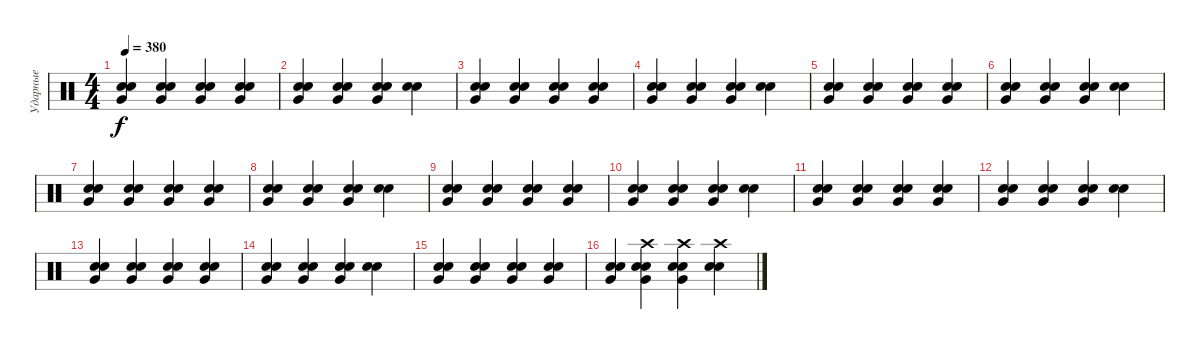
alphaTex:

\track ("Ударные" "Ударные") {instrument percussion}
\staff {score}
\articulation defaults
\ts (4 4)
\tempo 380
\clef neutral
\ks c
("Electric Snare (hit)" "Electric Snare (hit)" "Very Low Tom (hit)").4{dy f} ("Electric Snare (hit)" "Electric Snare (hit)" "Very Low Tom (hit)").4 ("Electric Snare (hit)" "Electric Snare (hit)" "Very Low Tom (hit)").4 ("Electric Snare (hit)" "Electric Snare (hit)" "Very Low Tom (hit)").4 |
("Electric Snare (hit)" "Electric Snare (hit)" "Very Low Tom (hit)").4 ("Electric Snare (hit)" "Electric Snare (hit)" "Very Low Tom (hit)").4 ("Electric Snare (hit)" "Electric Snare (hit)" "Very Low Tom (hit)").4 ("Electric Snare (hit)" "Electric Snare (hit)").4 |
("Electric Snare (hit)" "Electric Snare (hit)" "Very Low Tom (hit)").4 ("Electric Snare (hit)" "Electric Snare (hit)" "Very Low Tom (hit)").4 ("Electric Snare (hit)" "Electric Snare (hit)" "Very Low Tom (hit)").4 ("Electric Snare (hit)" "Electric Snare (hit)" "Very Low Tom (hit)").4 |
("Electric Snare (hit)" "Electric Snare (hit)" "Very Low Tom (hit)").4 ("Electric Snare (hit)" "Electric Snare (hit)" "Very Low Tom (hit)").4 ("Electric Snare (hit)" "Electric Snare (hit)" "Very Low Tom (hit)").4 ("Electric Snare (hit)" "Electric Snare (hit)").4 |
("Electric Snare (hit)" "Electric Snare (hit)" "Very Low Tom (hit)").4 ("Electric Snare (hit)" "Electric Snare (hit)" "Very Low Tom (hit)").4 ("Electric Snare (hit)" "Electric Snare (hit)" "Very Low Tom (hit)").4 ("Electric Snare (hit)" "Electric Snare (hit)" "Very Low Tom (hit)").4 |
("Electric Snare (hit)" "Electric Snare (hit)" "Very Low Tom (hit)").4 ("Electric Snare (hit)" "Electric Snare (hit)" "Very Low Tom (hit)").4 ("Electric Snare (hit)" "Electric Snare (hit)" "Very Low Tom (hit)").4 ("Electric Snare (hit)" "Electric Snare (hit)").4 |
("Electric Snare (hit)" "Electric Snare (hit)" "Very Low Tom (hit)").4 ("Electric Snare (hit)" "Electric Snare (hit)" "Very Low Tom (hit)").4 ("Electric Snare (hit)" "Electric Snare (hit)" "Very Low Tom (hit)").4 ("Electric Snare (hit)" "Electric Snare (hit)" "Very Low Tom (hit)").4 |
("Electric Snare (hit)" "Electric Snare (hit)" "Very Low Tom (hit)").4 ("Electric Snare (hit)" "Electric Snare (hit)" "Very Low Tom (hit)").4 ("Electric Snare (hit)" "Electric Snare (hit)" "Very Low Tom (hit)").4 ("Electric Snare (hit)" "Electric Snare (hit)").4 |
("Electric Snare (hit)" "Electric Snare (hit)" "Very Low Tom (hit)").4 ("Electric Snare (hit)" "Electric Snare (hit)" "Very Low Tom (hit)").4 ("Electric Snare (hit)" "Electric Snare (hit)" "Very Low Tom (hit)").4 ("Electric Snare (hit)" "Electric Snare (hit)" "Very Low Tom (hit)").4 |
("Electric Snare (hit)" "Electric Snare (hit)" "Very Low Tom (hit)").4 ("Electric Snare (hit)" "Electric Snare (hit)" "Very Low Tom (hit)").4 ("Electric Snare (hit)" "Electric Snare (hit)" "Very Low Tom (hit)").4 ("Electric Snare (hit)" "Electric Snare (hit)").4 |
("Electric Snare (hit)" "Electric Snare (hit)" "Very Low Tom (hit)").4 ("Electric Snare (hit)" "Electric Snare (hit)" "Very Low Tom (hit)").4 ("Electric Snare (hit)" "Electric Snare (hit)" "Very Low Tom (hit)").4 ("Electric Snare (hit)" "Electric Snare (hit)" "Very Low Tom (hit)").4 |
("Electric Snare (hit)" "Electric Snare (hit)" "Very Low Tom (hit)").4 ("Electric Snare (hit)" "Electric Snare (hit)" "Very Low Tom (hit)").4 ("Electric Snare (hit)" "Electric Snare (hit)" "Very Low Tom (hit)").4 ("Electric Snare (hit)" "Electric Snare (hit)").4 |
("Electric Snare (hit)" "Electric Snare (hit)" "Very Low Tom (hit)").4 ("Electric Snare (hit)" "Electric Snare (hit)" "Very Low Tom (hit)").4 ("Electric Snare (hit)" "Electric Snare (hit)" "Very Low Tom (hit)").4 ("Electric Snare (hit)" "Electric Snare (hit)" "Very Low Tom (hit)").4 |
("Electric Snare (hit)" "Electric Snare (hit)" "Very Low Tom (hit)").4 ("Electric Snare (hit)" "Electric Snare (hit)" "Very Low Tom (hit)").4 ("Electric Snare (hit)" "Electric Snare (hit)" "Very Low Tom (hit)").4 ("Electric Snare (hit)" "Electric Snare (hit)").4 |
("Electric Snare (hit)" "Electric Snare (hit)" "Very Low Tom (hit)").4 ("Electric Snare (hit)" "Electric Snare (hit)" "Very Low Tom (hit)").4 ("Electric Snare (hit)" "Electric Snare (hit)" "Very Low Tom (hit)").4 ("Electric Snare (hit)" "Electric Snare (hit)" "Very Low Tom (hit)").4 |
("Electric Snare (hit)" "Electric Snare (hit)" "Very Low Tom (hit)").4 ("Electric Snare (hit)" "Electric Snare (hit)" "Crash high (hit)" "Very Low Tom (hit)").4 ("Electric Snare (hit)" "Electric Snare (hit)" "Crash high (hit)" "Very Low Tom (hit)").4 ("Electric Snare (hit)" "Electric Snare (hit)" "Crash high (hit)").4
